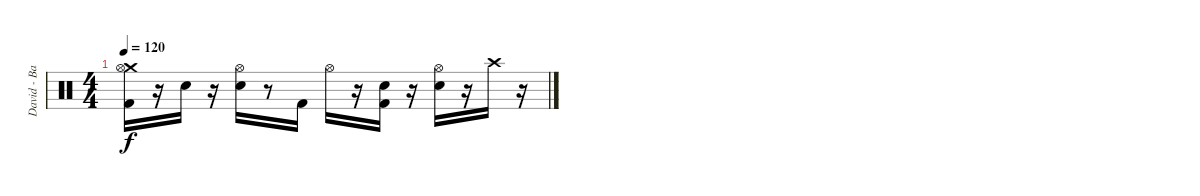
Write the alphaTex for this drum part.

\track ("David - Batterie" "David - Ba") {instrument percussion}
\staff {score}
\articulation defaults
\ts (4 4)
\tempo 120
\clef neutral
\ks c
("Kick (hit) 2" "Crash medium (hit)" "Hi-Hat (open)").16{dy f volume 3} r.16 "Electric Snare (hit)".16 r.16 ("Electric Snare (hit)" "Hi-Hat (open)").16{volume 2} r.8 "Kick (hit) 2".16{volume 1} "Hi-Hat (open)".16 r.16 ("Kick (hit) 2" "Electric Snare (hit)").16 r.16 ("Electric Snare (hit)" "Hi-Hat (open)").16 r.16 "Crash high (hit)".16 r.16
